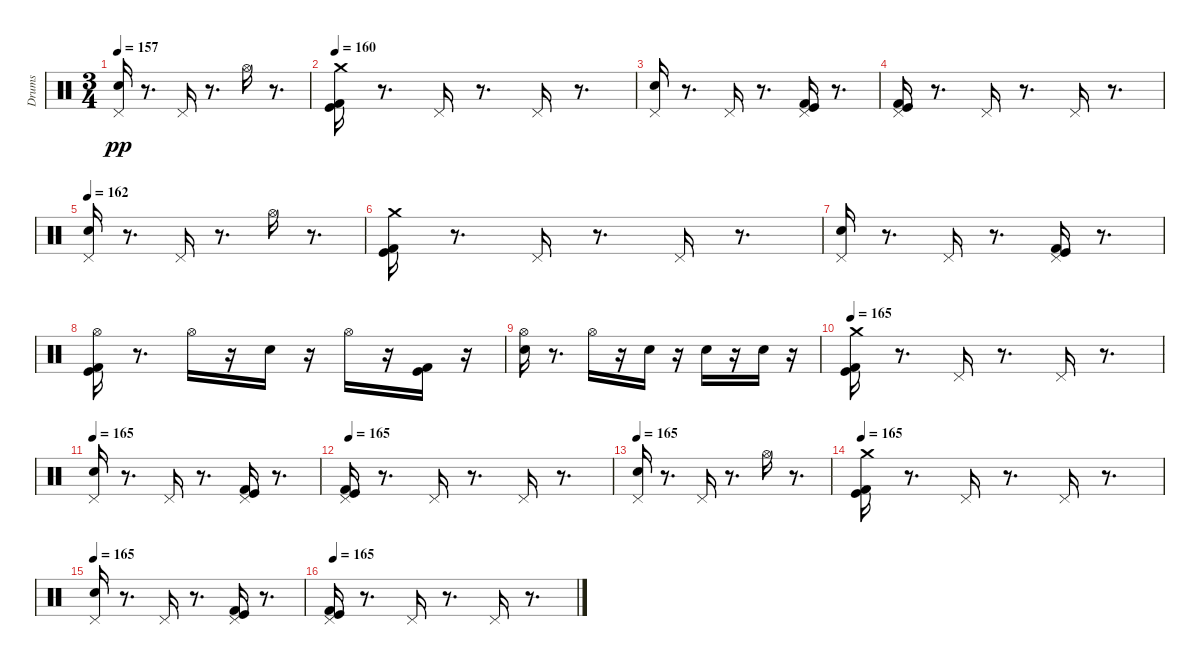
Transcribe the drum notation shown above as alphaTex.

\track ("Drums" "Drums") {instrument percussion}
\staff {score}
\articulation defaults
\ts (3 4)
\tempo 157
\clef neutral
\ks c
("Pedal Hi-Hat (hit)" "Snare (hit) 2").16{dy pp} r.8{d} "Pedal Hi-Hat (hit)".16 r.8{d} "Hi-Hat (open)".16 r.8{d} |
\tempo 160
("Crash medium (hit)" "Kick (hit) 2" "Kick (hit)").16 r.8{d} "Pedal Hi-Hat (hit)".16 r.8{d} "Pedal Hi-Hat (hit)".16 r.8{d} |
("Pedal Hi-Hat (hit)" "Snare (hit) 2").16 r.8{d} "Pedal Hi-Hat (hit)".16 r.8{d} ("Pedal Hi-Hat (hit)" "Kick (hit) 2" "Kick (hit)").16 r.8{d} |
("Pedal Hi-Hat (hit)" "Kick (hit) 2" "Kick (hit)").16 r.8{d} "Pedal Hi-Hat (hit)".16 r.8{d} "Pedal Hi-Hat (hit)".16 r.8{d} |
\tempo 162
("Pedal Hi-Hat (hit)" "Snare (hit) 2").16 r.8{d} "Pedal Hi-Hat (hit)".16 r.8{d} "Hi-Hat (open)".16 r.8{d} |
("Crash medium (hit)" "Kick (hit) 2" "Kick (hit)").16 r.8{d} "Pedal Hi-Hat (hit)".16 r.8{d} "Pedal Hi-Hat (hit)".16 r.8{d} |
("Pedal Hi-Hat (hit)" "Snare (hit) 2").16 r.8{d} "Pedal Hi-Hat (hit)".16 r.8{d} ("Pedal Hi-Hat (hit)" "Kick (hit) 2" "Kick (hit)").16 r.8{d} |
("Hi-Hat (open)" "Kick (hit) 2" "Kick (hit)").16 r.8{d} "Hi-Hat (open)".16 r.16 "Snare (hit) 2".16 r.16 "Hi-Hat (open)".16 r.16 ("Kick (hit) 2" "Kick (hit)").16 r.16 |
("Hi-Hat (open)" "Snare (hit) 2").16 r.8{d} "Hi-Hat (open)".16 r.16 "Snare (hit) 2".16 r.16 "Snare (hit) 2".16 r.16 "Snare (hit) 2".16 r.16 |
\tempo 165
("Crash medium (hit)" "Kick (hit) 2" "Kick (hit)").16 r.8{d} "Pedal Hi-Hat (hit)".16 r.8{d} "Pedal Hi-Hat (hit)".16 r.8{d} |
\tempo 165
("Pedal Hi-Hat (hit)" "Snare (hit) 2").16 r.8{d} "Pedal Hi-Hat (hit)".16 r.8{d} ("Pedal Hi-Hat (hit)" "Kick (hit) 2" "Kick (hit)").16 r.8{d} |
\tempo 165
("Pedal Hi-Hat (hit)" "Kick (hit) 2" "Kick (hit)").16 r.8{d} "Pedal Hi-Hat (hit)".16 r.8{d} "Pedal Hi-Hat (hit)".16 r.8{d} |
\tempo 165
("Pedal Hi-Hat (hit)" "Snare (hit) 2").16 r.8{d} "Pedal Hi-Hat (hit)".16 r.8{d} "Hi-Hat (open)".16 r.8{d} |
\tempo 165
("Crash medium (hit)" "Kick (hit) 2" "Kick (hit)").16 r.8{d} "Pedal Hi-Hat (hit)".16 r.8{d} "Pedal Hi-Hat (hit)".16 r.8{d} |
\tempo 165
("Pedal Hi-Hat (hit)" "Snare (hit) 2").16 r.8{d} "Pedal Hi-Hat (hit)".16 r.8{d} ("Pedal Hi-Hat (hit)" "Kick (hit) 2" "Kick (hit)").16 r.8{d} |
\tempo 165
("Pedal Hi-Hat (hit)" "Kick (hit) 2" "Kick (hit)").16 r.8{d} "Pedal Hi-Hat (hit)".16 r.8{d} "Pedal Hi-Hat (hit)".16 r.8{d}
